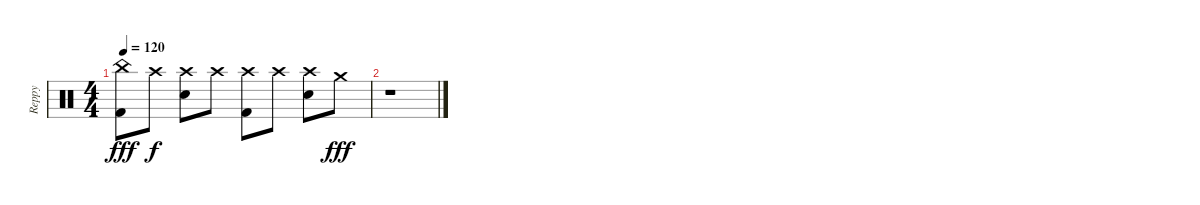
\track ("Reppy" "Reppy") {instrument percussion}
\staff {score}
\articulation defaults
\ts (4 4)
\tempo 120
\clef neutral
\ks c
("China (hit)" "Kick (hit) 2").8{dy fff} "Crash high (hit)".8{dy f} ("Crash high (hit)" "Electric Snare (hit)").8 "Crash high (hit)".8 ("Crash high (hit)" "Kick (hit) 2").8 "Crash high (hit)".8 ("Crash high (hit)" "Electric Snare (hit)").8 "Crash medium (hit)".8{dy fff} |
r.1
